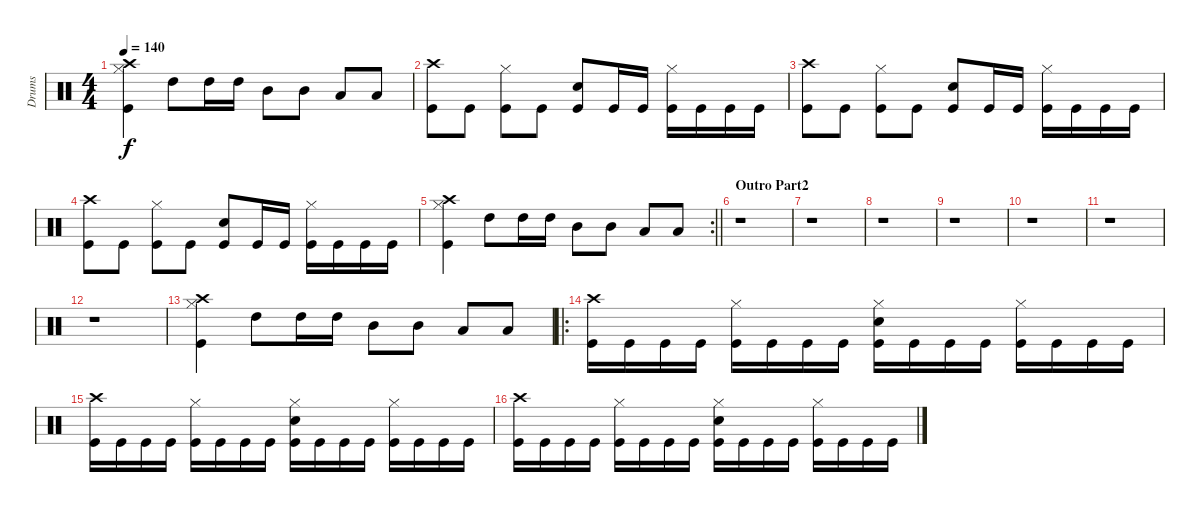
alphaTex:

\track ("Drums" "Drums") {instrument percussion}
\staff {score}
\articulation defaults
\ts (4 4)
\tempo 140
\clef neutral
\ks c
("Crash high (hit)" "Hi-Hat (closed)" "Kick (hit)").4{dy f} "High Tom (hit)".8 "High Tom (hit)".16 "High Tom (hit)".16 "Mid Tom (hit)".8 "Mid Tom (hit)".8 "Low Tom (hit)".8 "Low Tom (hit)".8 |
("Crash high (hit)" "Kick (hit)").8 "Kick (hit)".8 ("Hi-Hat (closed)" "Kick (hit)").8 "Kick (hit)".8 ("Snare (hit) 2" "Kick (hit)").8 "Kick (hit)".16 "Kick (hit)".16 ("Hi-Hat (closed)" "Kick (hit)").16 "Kick (hit)".16 "Kick (hit)".16 "Kick (hit)".16 |
("Crash high (hit)" "Kick (hit)").8 "Kick (hit)".8 ("Hi-Hat (closed)" "Kick (hit)").8 "Kick (hit)".8 ("Snare (hit) 2" "Kick (hit)").8 "Kick (hit)".16 "Kick (hit)".16 ("Hi-Hat (closed)" "Kick (hit)").16 "Kick (hit)".16 "Kick (hit)".16 "Kick (hit)".16 |
("Crash high (hit)" "Kick (hit)").8 "Kick (hit)".8 ("Hi-Hat (closed)" "Kick (hit)").8 "Kick (hit)".8 ("Snare (hit) 2" "Kick (hit)").8 "Kick (hit)".16 "Kick (hit)".16 ("Hi-Hat (closed)" "Kick (hit)").16 "Kick (hit)".16 "Kick (hit)".16 "Kick (hit)".16 |
\rc 2
\barLineRight lightlight
("Crash high (hit)" "Hi-Hat (closed)" "Kick (hit)").4 "High Tom (hit)".8 "High Tom (hit)".16 "High Tom (hit)".16 "Mid Tom (hit)".8 "Mid Tom (hit)".8 "Low Tom (hit)".8 "Low Tom (hit)".8 |
\section ("" "Outro Part2")
r.1 |
r.1 |
r.1 |
r.1 |
r.1 |
r.1 |
r.1 |
("Crash high (hit)" "Hi-Hat (closed)" "Kick (hit)").4 "High Tom (hit)".8 "High Tom (hit)".16 "High Tom (hit)".16 "Mid Tom (hit)".8 "Mid Tom (hit)".8 "Low Tom (hit)".8 "Low Tom (hit)".8 |
\ro
("Crash high (hit)" "Kick (hit)").16 "Kick (hit)".16 "Kick (hit)".16 "Kick (hit)".16 ("Hi-Hat (closed)" "Kick (hit)").16 "Kick (hit)".16 "Kick (hit)".16 "Kick (hit)".16 ("Snare (hit) 2" "Hi-Hat (closed)" "Kick (hit)").16 "Kick (hit)".16 "Kick (hit)".16 "Kick (hit)".16 ("Hi-Hat (closed)" "Kick (hit)").16 "Kick (hit)".16 "Kick (hit)".16 "Kick (hit)".16 |
("Crash high (hit)" "Kick (hit)").16 "Kick (hit)".16 "Kick (hit)".16 "Kick (hit)".16 ("Hi-Hat (closed)" "Kick (hit)").16 "Kick (hit)".16 "Kick (hit)".16 "Kick (hit)".16 ("Snare (hit) 2" "Hi-Hat (closed)" "Kick (hit)").16 "Kick (hit)".16 "Kick (hit)".16 "Kick (hit)".16 ("Hi-Hat (closed)" "Kick (hit)").16 "Kick (hit)".16 "Kick (hit)".16 "Kick (hit)".16 |
("Crash high (hit)" "Kick (hit)").16 "Kick (hit)".16 "Kick (hit)".16 "Kick (hit)".16 ("Hi-Hat (closed)" "Kick (hit)").16 "Kick (hit)".16 "Kick (hit)".16 "Kick (hit)".16 ("Snare (hit) 2" "Hi-Hat (closed)" "Kick (hit)").16 "Kick (hit)".16 "Kick (hit)".16 "Kick (hit)".16 ("Hi-Hat (closed)" "Kick (hit)").16 "Kick (hit)".16 "Kick (hit)".16 "Kick (hit)".16
